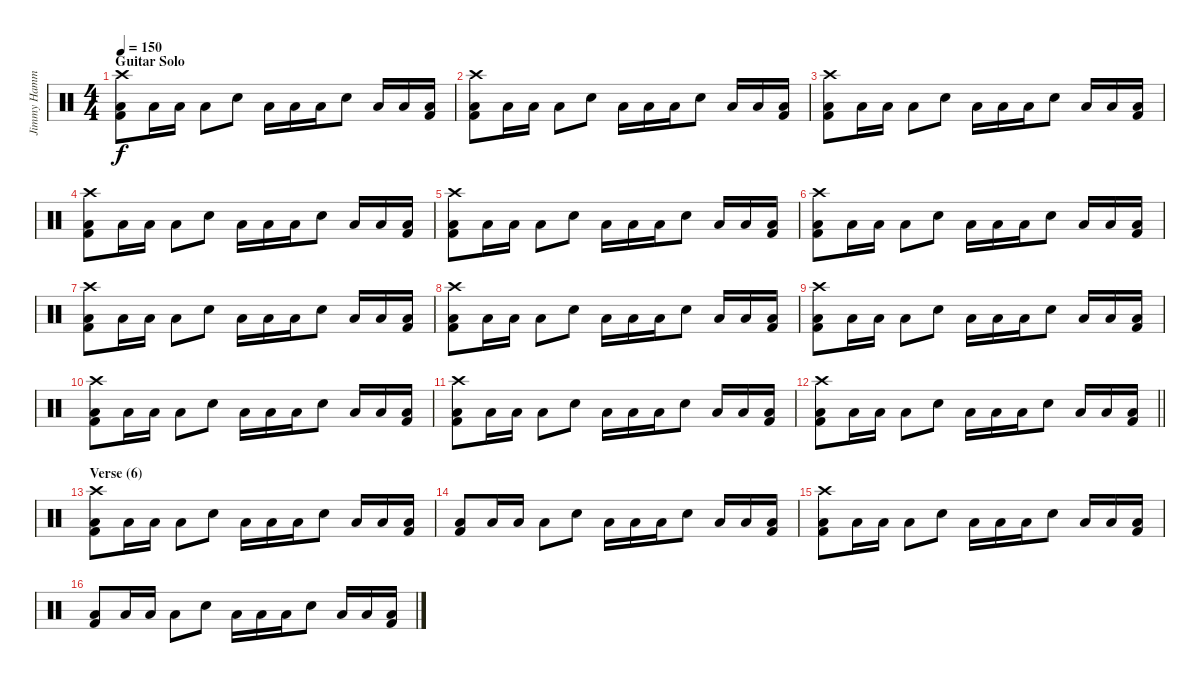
\track ("Jimmy Hammer" "Jimmy Hamm") {instrument percussion}
\staff {score}
\articulation defaults
\ts (4 4)
\section ("" "Guitar Solo")
\tempo 150
\clef neutral
\ks c
("Crash high (hit)" "Low Floor Tom (hit)" "Kick (hit) 2").8{dy f} "Low Floor Tom (hit)".16 "Low Floor Tom (hit)".16 "Low Floor Tom (hit)".8 "Electric Snare (hit)".8 "Low Floor Tom (hit)".16 "Low Floor Tom (hit)".16 "Low Floor Tom (hit)".16 "Electric Snare (hit)".8 "Low Floor Tom (hit)".16 "Low Floor Tom (hit)".16 ("Low Floor Tom (hit)" "Kick (hit) 2").16 |
("Crash high (hit)" "Low Floor Tom (hit)" "Kick (hit) 2").8 "Low Floor Tom (hit)".16 "Low Floor Tom (hit)".16 "Low Floor Tom (hit)".8 "Electric Snare (hit)".8 "Low Floor Tom (hit)".16 "Low Floor Tom (hit)".16 "Low Floor Tom (hit)".16 "Electric Snare (hit)".8 "Low Floor Tom (hit)".16 "Low Floor Tom (hit)".16 ("Low Floor Tom (hit)" "Kick (hit) 2").16 |
("Crash high (hit)" "Low Floor Tom (hit)" "Kick (hit) 2").8 "Low Floor Tom (hit)".16 "Low Floor Tom (hit)".16 "Low Floor Tom (hit)".8 "Electric Snare (hit)".8 "Low Floor Tom (hit)".16 "Low Floor Tom (hit)".16 "Low Floor Tom (hit)".16 "Electric Snare (hit)".8 "Low Floor Tom (hit)".16 "Low Floor Tom (hit)".16 ("Low Floor Tom (hit)" "Kick (hit) 2").16 |
("Crash high (hit)" "Low Floor Tom (hit)" "Kick (hit) 2").8 "Low Floor Tom (hit)".16 "Low Floor Tom (hit)".16 "Low Floor Tom (hit)".8 "Electric Snare (hit)".8 "Low Floor Tom (hit)".16 "Low Floor Tom (hit)".16 "Low Floor Tom (hit)".16 "Electric Snare (hit)".8 "Low Floor Tom (hit)".16 "Low Floor Tom (hit)".16 ("Low Floor Tom (hit)" "Kick (hit) 2").16 |
("Crash high (hit)" "Low Floor Tom (hit)" "Kick (hit) 2").8 "Low Floor Tom (hit)".16 "Low Floor Tom (hit)".16 "Low Floor Tom (hit)".8 "Electric Snare (hit)".8 "Low Floor Tom (hit)".16 "Low Floor Tom (hit)".16 "Low Floor Tom (hit)".16 "Electric Snare (hit)".8 "Low Floor Tom (hit)".16 "Low Floor Tom (hit)".16 ("Low Floor Tom (hit)" "Kick (hit) 2").16 |
("Crash high (hit)" "Low Floor Tom (hit)" "Kick (hit) 2").8 "Low Floor Tom (hit)".16 "Low Floor Tom (hit)".16 "Low Floor Tom (hit)".8 "Electric Snare (hit)".8 "Low Floor Tom (hit)".16 "Low Floor Tom (hit)".16 "Low Floor Tom (hit)".16 "Electric Snare (hit)".8 "Low Floor Tom (hit)".16 "Low Floor Tom (hit)".16 ("Low Floor Tom (hit)" "Kick (hit) 2").16 |
("Crash high (hit)" "Low Floor Tom (hit)" "Kick (hit) 2").8 "Low Floor Tom (hit)".16 "Low Floor Tom (hit)".16 "Low Floor Tom (hit)".8 "Electric Snare (hit)".8 "Low Floor Tom (hit)".16 "Low Floor Tom (hit)".16 "Low Floor Tom (hit)".16 "Electric Snare (hit)".8 "Low Floor Tom (hit)".16 "Low Floor Tom (hit)".16 ("Low Floor Tom (hit)" "Kick (hit) 2").16 |
("Crash high (hit)" "Low Floor Tom (hit)" "Kick (hit) 2").8 "Low Floor Tom (hit)".16 "Low Floor Tom (hit)".16 "Low Floor Tom (hit)".8 "Electric Snare (hit)".8 "Low Floor Tom (hit)".16 "Low Floor Tom (hit)".16 "Low Floor Tom (hit)".16 "Electric Snare (hit)".8 "Low Floor Tom (hit)".16 "Low Floor Tom (hit)".16 ("Low Floor Tom (hit)" "Kick (hit) 2").16 |
("Crash high (hit)" "Low Floor Tom (hit)" "Kick (hit) 2").8 "Low Floor Tom (hit)".16 "Low Floor Tom (hit)".16 "Low Floor Tom (hit)".8 "Electric Snare (hit)".8 "Low Floor Tom (hit)".16 "Low Floor Tom (hit)".16 "Low Floor Tom (hit)".16 "Electric Snare (hit)".8 "Low Floor Tom (hit)".16 "Low Floor Tom (hit)".16 ("Low Floor Tom (hit)" "Kick (hit) 2").16 |
("Crash high (hit)" "Low Floor Tom (hit)" "Kick (hit) 2").8 "Low Floor Tom (hit)".16 "Low Floor Tom (hit)".16 "Low Floor Tom (hit)".8 "Electric Snare (hit)".8 "Low Floor Tom (hit)".16 "Low Floor Tom (hit)".16 "Low Floor Tom (hit)".16 "Electric Snare (hit)".8 "Low Floor Tom (hit)".16 "Low Floor Tom (hit)".16 ("Low Floor Tom (hit)" "Kick (hit) 2").16 |
("Crash high (hit)" "Low Floor Tom (hit)" "Kick (hit) 2").8 "Low Floor Tom (hit)".16 "Low Floor Tom (hit)".16 "Low Floor Tom (hit)".8 "Electric Snare (hit)".8 "Low Floor Tom (hit)".16 "Low Floor Tom (hit)".16 "Low Floor Tom (hit)".16 "Electric Snare (hit)".8 "Low Floor Tom (hit)".16 "Low Floor Tom (hit)".16 ("Low Floor Tom (hit)" "Kick (hit) 2").16 |
\barLineRight lightlight
("Crash high (hit)" "Low Floor Tom (hit)" "Kick (hit) 2").8 "Low Floor Tom (hit)".16 "Low Floor Tom (hit)".16 "Low Floor Tom (hit)".8 "Electric Snare (hit)".8 "Low Floor Tom (hit)".16 "Low Floor Tom (hit)".16 "Low Floor Tom (hit)".16 "Electric Snare (hit)".8 "Low Floor Tom (hit)".16 "Low Floor Tom (hit)".16 ("Low Floor Tom (hit)" "Kick (hit) 2").16 |
\section ("" "Verse (6)")
("Crash high (hit)" "Low Floor Tom (hit)" "Kick (hit) 2").8 "Low Floor Tom (hit)".16 "Low Floor Tom (hit)".16 "Low Floor Tom (hit)".8 "Electric Snare (hit)".8 "Low Floor Tom (hit)".16 "Low Floor Tom (hit)".16 "Low Floor Tom (hit)".16 "Electric Snare (hit)".8 "Low Floor Tom (hit)".16 "Low Floor Tom (hit)".16 ("Low Floor Tom (hit)" "Kick (hit) 2").16 |
("Low Floor Tom (hit)" "Kick (hit) 2").8 "Low Floor Tom (hit)".16 "Low Floor Tom (hit)".16 "Low Floor Tom (hit)".8 "Electric Snare (hit)".8 "Low Floor Tom (hit)".16 "Low Floor Tom (hit)".16 "Low Floor Tom (hit)".16 "Electric Snare (hit)".8 "Low Floor Tom (hit)".16 "Low Floor Tom (hit)".16 ("Low Floor Tom (hit)" "Kick (hit) 2").16 |
("Crash high (hit)" "Low Floor Tom (hit)" "Kick (hit) 2").8 "Low Floor Tom (hit)".16 "Low Floor Tom (hit)".16 "Low Floor Tom (hit)".8 "Electric Snare (hit)".8 "Low Floor Tom (hit)".16 "Low Floor Tom (hit)".16 "Low Floor Tom (hit)".16 "Electric Snare (hit)".8 "Low Floor Tom (hit)".16 "Low Floor Tom (hit)".16 ("Low Floor Tom (hit)" "Kick (hit) 2").16 |
("Low Floor Tom (hit)" "Kick (hit) 2").8 "Low Floor Tom (hit)".16 "Low Floor Tom (hit)".16 "Low Floor Tom (hit)".8 "Electric Snare (hit)".8 "Low Floor Tom (hit)".16 "Low Floor Tom (hit)".16 "Low Floor Tom (hit)".16 "Electric Snare (hit)".8 "Low Floor Tom (hit)".16 "Low Floor Tom (hit)".16 ("Low Floor Tom (hit)" "Kick (hit) 2").16
